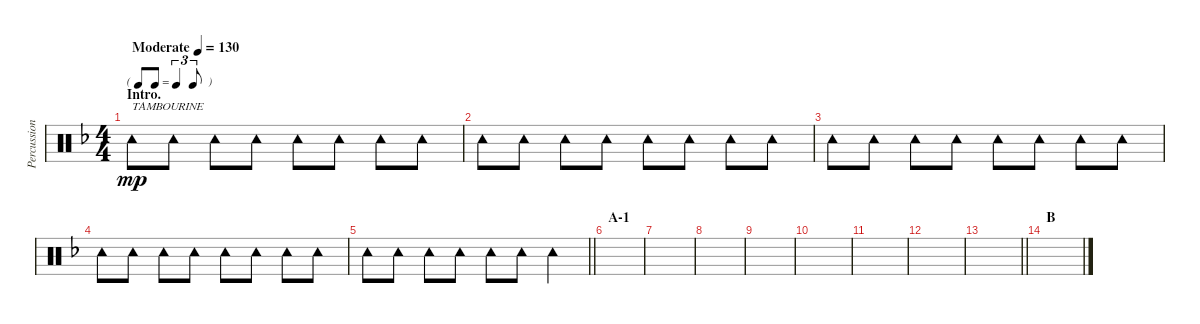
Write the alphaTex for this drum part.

\track ("Percussion II (Tainaka Ritsu)" "Percussion") {instrument percussion}
\staff {score}
\articulation defaults
\ts (4 4)
\tf triplet8th
\section ("" "Intro.")
\tempo (130 "Moderate")
\clef neutral
\ks f "Tambourine (hit)".8{txt "TAMBOURINE" dy mp} "Tambourine (hit)".8 "Tambourine (hit)".8 "Tambourine (hit)".8 "Tambourine (hit)".8 "Tambourine (hit)".8 "Tambourine (hit)".8 "Tambourine (hit)".8
|
"Tambourine (hit)".8 "Tambourine (hit)".8 "Tambourine (hit)".8 "Tambourine (hit)".8 "Tambourine (hit)".8 "Tambourine (hit)".8 "Tambourine (hit)".8 "Tambourine (hit)".8 |
"Tambourine (hit)".8 "Tambourine (hit)".8 "Tambourine (hit)".8 "Tambourine (hit)".8 "Tambourine (hit)".8 "Tambourine (hit)".8 "Tambourine (hit)".8 "Tambourine (hit)".8 |
"Tambourine (hit)".8 "Tambourine (hit)".8 "Tambourine (hit)".8 "Tambourine (hit)".8 "Tambourine (hit)".8 "Tambourine (hit)".8 "Tambourine (hit)".8 "Tambourine (hit)".8 |
\barLineRight lightlight "Tambourine (hit)".8 "Tambourine (hit)".8 "Tambourine (hit)".8 "Tambourine (hit)".8 "Tambourine (hit)".8 "Tambourine (hit)".8 "Tambourine (hit)".4
|
\section ("" "A-1")
|
|
|
|
|
|
|
\barLineRight lightlight
|
\section ("" "B")
